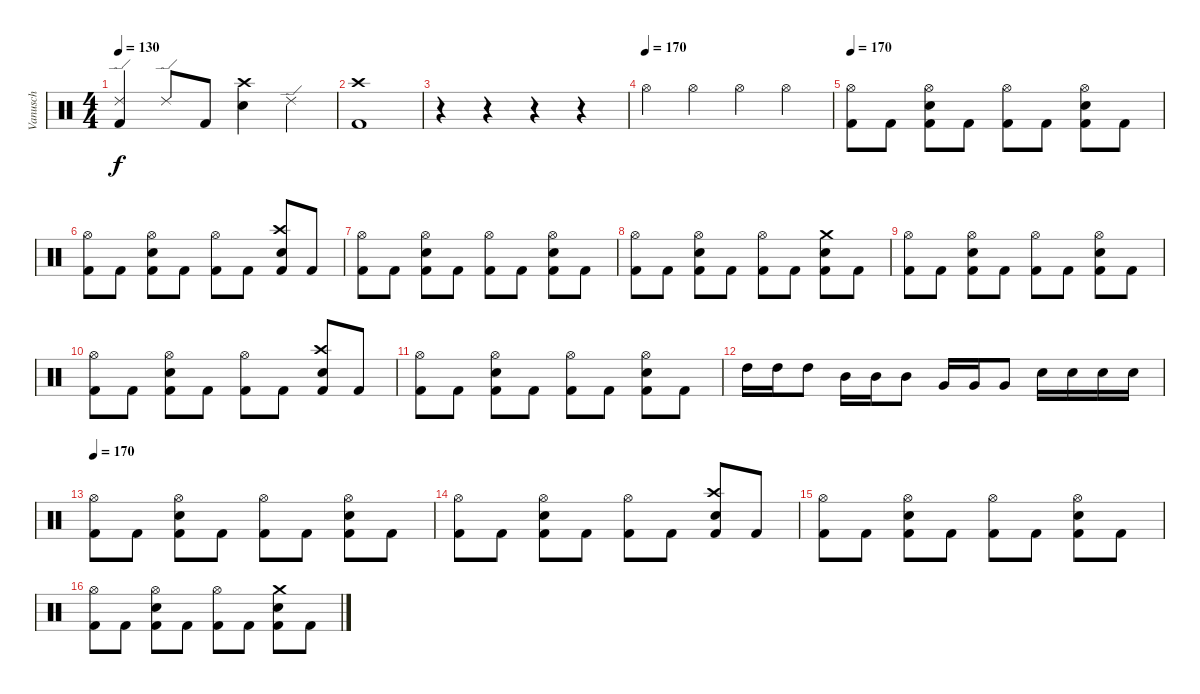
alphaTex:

\track ("Vanusch" "Vanusch") {instrument percussion}
\staff {score}
\articulation defaults
\ts (4 4)
\tempo 130
\clef neutral
\ks c
("Ride (edge) 2" "Kick (hit) 2").4{dy f} "Ride (edge) 2".8 "Kick (hit) 2".8 ("Crash high (hit)" "Snare (hit) 2").4 "Ride (edge) 2".4 |
("Crash high (hit)" "Kick (hit) 2").1 |
r.4 r.4 r.4 r.4 |
\tempo (170)
"Hi-Hat (open)".4 "Hi-Hat (open)".4 "Hi-Hat (open)".4 "Hi-Hat (open)".4 |
\tempo 170
("Hi-Hat (open)" "Kick (hit) 2").8 "Kick (hit) 2".8 ("Hi-Hat (open)" "Snare (hit) 2" "Kick (hit) 2").8 "Kick (hit) 2".8 ("Hi-Hat (open)" "Kick (hit) 2").8 "Kick (hit) 2".8 ("Hi-Hat (open)" "Snare (hit) 2" "Kick (hit) 2").8 "Kick (hit) 2".8 |
("Hi-Hat (open)" "Kick (hit) 2").8 "Kick (hit) 2".8 ("Hi-Hat (open)" "Snare (hit) 2" "Kick (hit) 2").8 "Kick (hit) 2".8 ("Hi-Hat (open)" "Kick (hit) 2").8 "Kick (hit) 2".8 ("Crash high (hit)" "Snare (hit) 2" "Kick (hit) 2").8 "Kick (hit) 2".8 |
("Hi-Hat (open)" "Kick (hit) 2").8 "Kick (hit) 2".8 ("Hi-Hat (open)" "Snare (hit) 2" "Kick (hit) 2").8 "Kick (hit) 2".8 ("Hi-Hat (open)" "Kick (hit) 2").8 "Kick (hit) 2".8 ("Hi-Hat (open)" "Snare (hit) 2" "Kick (hit) 2").8 "Kick (hit) 2".8 |
("Hi-Hat (open)" "Kick (hit) 2").8 "Kick (hit) 2".8 ("Hi-Hat (open)" "Snare (hit) 2" "Kick (hit) 2").8 "Kick (hit) 2".8 ("Hi-Hat (open)" "Kick (hit) 2").8 "Kick (hit) 2".8 ("Crash medium (hit)" "Snare (hit) 2" "Kick (hit) 2").8 "Kick (hit) 2".8 |
("Hi-Hat (open)" "Kick (hit) 2").8 "Kick (hit) 2".8 ("Hi-Hat (open)" "Snare (hit) 2" "Kick (hit) 2").8 "Kick (hit) 2".8 ("Hi-Hat (open)" "Kick (hit) 2").8 "Kick (hit) 2".8 ("Hi-Hat (open)" "Snare (hit) 2" "Kick (hit) 2").8 "Kick (hit) 2".8 |
("Hi-Hat (open)" "Kick (hit) 2").8 "Kick (hit) 2".8 ("Hi-Hat (open)" "Snare (hit) 2" "Kick (hit) 2").8 "Kick (hit) 2".8 ("Hi-Hat (open)" "Kick (hit) 2").8 "Kick (hit) 2".8 ("Crash high (hit)" "Snare (hit) 2" "Kick (hit) 2").8 "Kick (hit) 2".8 |
("Hi-Hat (open)" "Kick (hit) 2").8 "Kick (hit) 2".8 ("Hi-Hat (open)" "Snare (hit) 2" "Kick (hit) 2").8 "Kick (hit) 2".8 ("Hi-Hat (open)" "Kick (hit) 2").8 "Kick (hit) 2".8 ("Hi-Hat (open)" "Snare (hit) 2" "Kick (hit) 2").8 "Kick (hit) 2".8 |
"High Tom (hit)".16 "High Tom (hit)".16 "High Tom (hit)".8 "Mid Tom (hit)".16 "Mid Tom (hit)".16 "Mid Tom (hit)".8 "Very Low Tom (hit)".16 "Very Low Tom (hit)".16 "Very Low Tom (hit)".8 "Snare (hit) 2".16 "Snare (hit) 2".16 "Snare (hit) 2".16 "Snare (hit) 2".16 |
\tempo 170
("Hi-Hat (open)" "Kick (hit) 2").8 "Kick (hit) 2".8 ("Hi-Hat (open)" "Snare (hit) 2" "Kick (hit) 2").8 "Kick (hit) 2".8 ("Hi-Hat (open)" "Kick (hit) 2").8 "Kick (hit) 2".8 ("Hi-Hat (open)" "Snare (hit) 2" "Kick (hit) 2").8 "Kick (hit) 2".8 |
("Hi-Hat (open)" "Kick (hit) 2").8 "Kick (hit) 2".8 ("Hi-Hat (open)" "Snare (hit) 2" "Kick (hit) 2").8 "Kick (hit) 2".8 ("Hi-Hat (open)" "Kick (hit) 2").8 "Kick (hit) 2".8 ("Crash high (hit)" "Snare (hit) 2" "Kick (hit) 2").8 "Kick (hit) 2".8 |
("Hi-Hat (open)" "Kick (hit) 2").8 "Kick (hit) 2".8 ("Hi-Hat (open)" "Snare (hit) 2" "Kick (hit) 2").8 "Kick (hit) 2".8 ("Hi-Hat (open)" "Kick (hit) 2").8 "Kick (hit) 2".8 ("Hi-Hat (open)" "Snare (hit) 2" "Kick (hit) 2").8 "Kick (hit) 2".8 |
("Hi-Hat (open)" "Kick (hit) 2").8 "Kick (hit) 2".8 ("Hi-Hat (open)" "Snare (hit) 2" "Kick (hit) 2").8 "Kick (hit) 2".8 ("Hi-Hat (open)" "Kick (hit) 2").8 "Kick (hit) 2".8 ("Crash medium (hit)" "Snare (hit) 2" "Kick (hit) 2").8 "Kick (hit) 2".8
